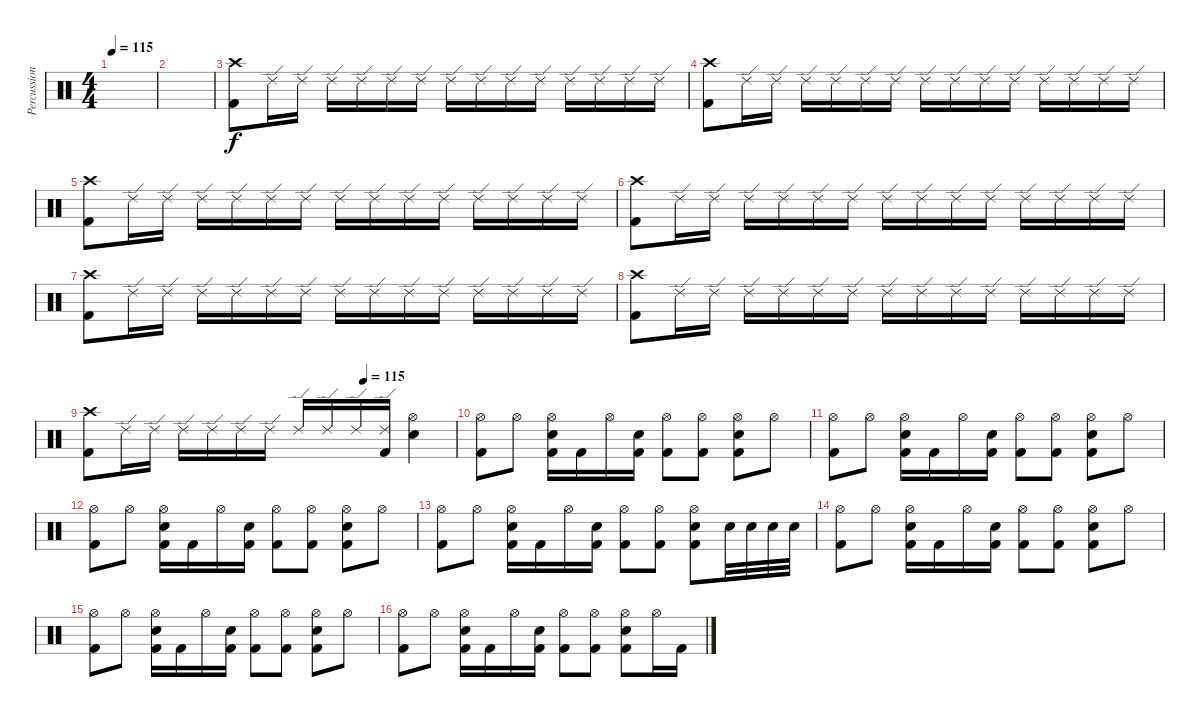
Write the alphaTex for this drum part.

\track ("Percussion" "Percussion") {instrument percussion}
\staff {score}
\articulation defaults
\ts (4 4)
\tempo 115
\tempo 110
\tempo 115
\clef neutral
\ks c
|
|
("Kick (hit) 2" "Crash high (hit)").8 "Ride (edge) 2".16 "Ride (edge) 2".16 "Ride (edge) 2".16 "Ride (edge) 2".16 "Ride (edge) 2".16 "Ride (edge) 2".16 "Ride (edge) 2".16 "Ride (edge) 2".16 "Ride (edge) 2".16 "Ride (edge) 2".16 "Ride (edge) 2".16 "Ride (edge) 2".16 "Ride (edge) 2".16 "Ride (edge) 2".16 |
("Kick (hit) 2" "Crash high (hit)").8 "Ride (edge) 2".16 "Ride (edge) 2".16 "Ride (edge) 2".16 "Ride (edge) 2".16 "Ride (edge) 2".16 "Ride (edge) 2".16 "Ride (edge) 2".16 "Ride (edge) 2".16 "Ride (edge) 2".16 "Ride (edge) 2".16 "Ride (edge) 2".16 "Ride (edge) 2".16 "Ride (edge) 2".16 "Ride (edge) 2".16 |
("Kick (hit) 2" "Crash high (hit)").8 "Ride (edge) 2".16 "Ride (edge) 2".16 "Ride (edge) 2".16 "Ride (edge) 2".16 "Ride (edge) 2".16 "Ride (edge) 2".16 "Ride (edge) 2".16 "Ride (edge) 2".16 "Ride (edge) 2".16 "Ride (edge) 2".16 "Ride (edge) 2".16 "Ride (edge) 2".16 "Ride (edge) 2".16 "Ride (edge) 2".16 |
("Kick (hit) 2" "Crash high (hit)").8 "Ride (edge) 2".16 "Ride (edge) 2".16 "Ride (edge) 2".16 "Ride (edge) 2".16 "Ride (edge) 2".16 "Ride (edge) 2".16 "Ride (edge) 2".16 "Ride (edge) 2".16 "Ride (edge) 2".16 "Ride (edge) 2".16 "Ride (edge) 2".16 "Ride (edge) 2".16 "Ride (edge) 2".16 "Ride (edge) 2".16 |
("Kick (hit) 2" "Crash high (hit)").8 "Ride (edge) 2".16 "Ride (edge) 2".16 "Ride (edge) 2".16 "Ride (edge) 2".16 "Ride (edge) 2".16 "Ride (edge) 2".16 "Ride (edge) 2".16 "Ride (edge) 2".16 "Ride (edge) 2".16 "Ride (edge) 2".16 "Ride (edge) 2".16 "Ride (edge) 2".16 "Ride (edge) 2".16 "Ride (edge) 2".16 |
("Kick (hit) 2" "Crash high (hit)").8 "Ride (edge) 2".16 "Ride (edge) 2".16 "Ride (edge) 2".16 "Ride (edge) 2".16 "Ride (edge) 2".16 "Ride (edge) 2".16 "Ride (edge) 2".16 "Ride (edge) 2".16 "Ride (edge) 2".16 "Ride (edge) 2".16 "Ride (edge) 2".16 "Ride (edge) 2".16 "Ride (edge) 2".16 "Ride (edge) 2".16 |
\tempo (115 0.75)
("Kick (hit) 2" "Crash high (hit)").8 "Ride (edge) 2".16 "Ride (edge) 2".16 "Ride (edge) 2".16 "Ride (edge) 2".16 "Ride (edge) 2".16 "Ride (edge) 2".16 "Ride (edge) 2".16 "Ride (edge) 2".16 "Ride (edge) 2".16 ("Kick (hit) 2" "Ride (edge) 2").16 ("Snare (hit) 2" "Hi-Hat (open)").4 |
("Kick (hit) 2" "Hi-Hat (open)").8 "Hi-Hat (open)".8 ("Snare (hit) 2" "Kick (hit) 2" "Hi-Hat (open)").16 "Kick (hit) 2".16 "Hi-Hat (open)".16 ("Snare (hit) 2" "Kick (hit) 2").16 ("Kick (hit) 2" "Hi-Hat (open)").8 ("Kick (hit) 2" "Hi-Hat (open)").8 ("Snare (hit) 2" "Kick (hit) 2" "Hi-Hat (open)").8 "Hi-Hat (open)".8 |
("Kick (hit) 2" "Hi-Hat (open)").8 "Hi-Hat (open)".8 ("Snare (hit) 2" "Kick (hit) 2" "Hi-Hat (open)").16 "Kick (hit) 2".16 "Hi-Hat (open)".16 ("Snare (hit) 2" "Kick (hit) 2").16 ("Kick (hit) 2" "Hi-Hat (open)").8 ("Kick (hit) 2" "Hi-Hat (open)").8 ("Snare (hit) 2" "Kick (hit) 2" "Hi-Hat (open)").8 "Hi-Hat (open)".8 |
("Kick (hit) 2" "Hi-Hat (open)").8 "Hi-Hat (open)".8 ("Snare (hit) 2" "Kick (hit) 2" "Hi-Hat (open)").16 "Kick (hit) 2".16 "Hi-Hat (open)".16 ("Snare (hit) 2" "Kick (hit) 2").16 ("Kick (hit) 2" "Hi-Hat (open)").8 ("Kick (hit) 2" "Hi-Hat (open)").8 ("Snare (hit) 2" "Kick (hit) 2" "Hi-Hat (open)").8 "Hi-Hat (open)".8 |
("Kick (hit) 2" "Hi-Hat (open)").8 "Hi-Hat (open)".8 ("Snare (hit) 2" "Kick (hit) 2" "Hi-Hat (open)").16 "Kick (hit) 2".16 "Hi-Hat (open)".16 ("Snare (hit) 2" "Kick (hit) 2").16 ("Kick (hit) 2" "Hi-Hat (open)").8 ("Kick (hit) 2" "Hi-Hat (open)").8 ("Snare (hit) 2" "Kick (hit) 2" "Hi-Hat (open)").8 "Snare (hit) 2".32 "Snare (hit) 2".32 "Snare (hit) 2".32 "Snare (hit) 2".32 |
("Kick (hit) 2" "Hi-Hat (open)").8 "Hi-Hat (open)".8 ("Snare (hit) 2" "Kick (hit) 2" "Hi-Hat (open)").16 "Kick (hit) 2".16 "Hi-Hat (open)".16 ("Snare (hit) 2" "Kick (hit) 2").16 ("Kick (hit) 2" "Hi-Hat (open)").8 ("Kick (hit) 2" "Hi-Hat (open)").8 ("Snare (hit) 2" "Kick (hit) 2" "Hi-Hat (open)").8 "Hi-Hat (open)".8 |
("Kick (hit) 2" "Hi-Hat (open)").8 "Hi-Hat (open)".8 ("Snare (hit) 2" "Kick (hit) 2" "Hi-Hat (open)").16 "Kick (hit) 2".16 "Hi-Hat (open)".16 ("Snare (hit) 2" "Kick (hit) 2").16 ("Kick (hit) 2" "Hi-Hat (open)").8 ("Kick (hit) 2" "Hi-Hat (open)").8 ("Snare (hit) 2" "Kick (hit) 2" "Hi-Hat (open)").8 "Hi-Hat (open)".8 |
("Kick (hit) 2" "Hi-Hat (open)").8 "Hi-Hat (open)".8 ("Snare (hit) 2" "Kick (hit) 2" "Hi-Hat (open)").16 "Kick (hit) 2".16 "Hi-Hat (open)".16 ("Snare (hit) 2" "Kick (hit) 2").16 ("Kick (hit) 2" "Hi-Hat (open)").8 ("Kick (hit) 2" "Hi-Hat (open)").8 ("Snare (hit) 2" "Kick (hit) 2" "Hi-Hat (open)").8 "Hi-Hat (open)".16 "Kick (hit) 2".16
